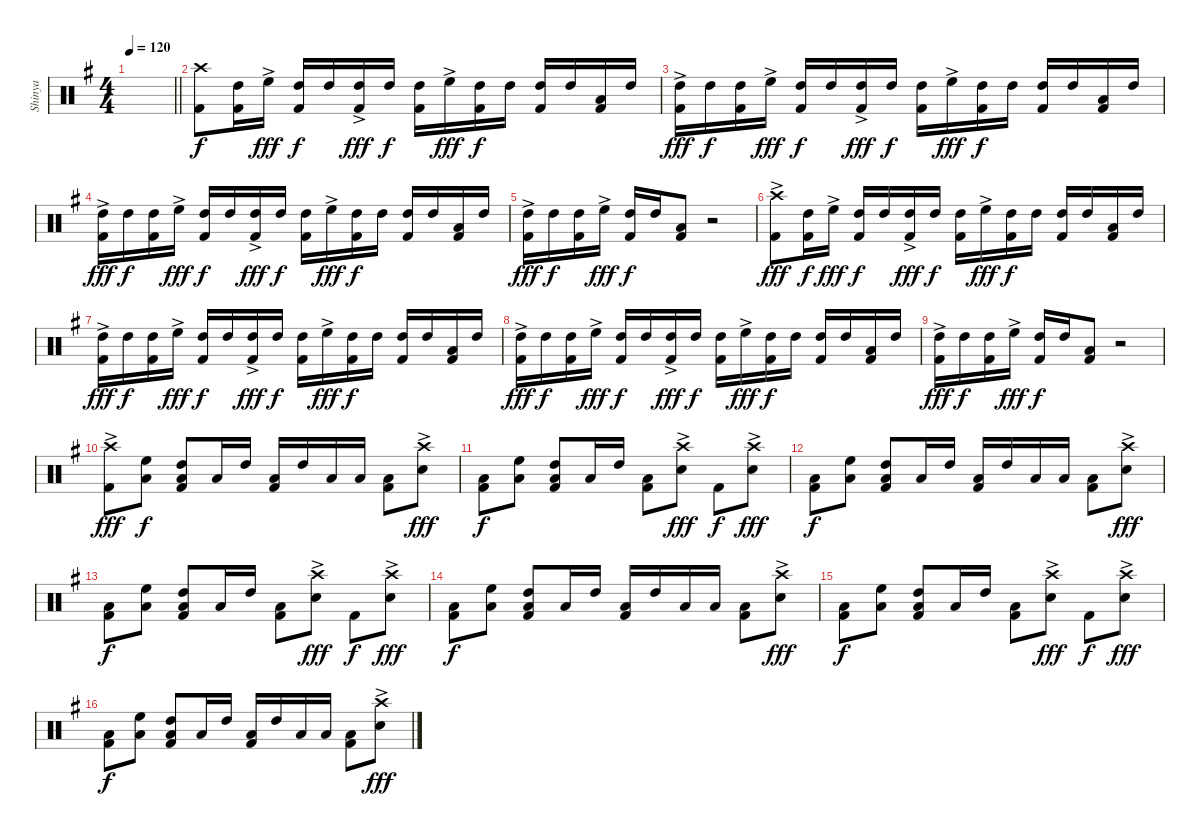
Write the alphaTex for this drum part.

\track ("Shinya" "Shinya") {instrument percussion}
\staff {score}
\articulation defaults
\ts (4 4)
\tempo 120
\clef neutral
\barLineRight lightlight
\ks g
|
("Crash high (hit)" "Kick (hit) 2").8 ("High Tom (hit)" "Kick (hit) 2").16 "High Floor Tom (hit)"{ac}.16{dy fff} ("High Tom (hit)" "Kick (hit) 2").16{dy f} "High Tom (hit)".16 ("High Tom (hit)"{ac} "Kick (hit) 2").16{dy fff} "High Tom (hit)".16{dy f} ("High Tom (hit)" "Kick (hit) 2").16 "High Floor Tom (hit)"{ac}.16{dy fff} ("High Tom (hit)" "Kick (hit) 2").16{dy f} "High Tom (hit)".16 ("High Tom (hit)" "Kick (hit) 2").16 "High Tom (hit)".16 ("Low Floor Tom (hit)" "Kick (hit) 2").16 "High Tom (hit)".16 |
("High Tom (hit)"{ac} "Kick (hit) 2").16{dy fff} "High Tom (hit)".16{dy f} ("High Tom (hit)" "Kick (hit) 2").16 "High Floor Tom (hit)"{ac}.16{dy fff} ("High Tom (hit)" "Kick (hit) 2").16{dy f} "High Tom (hit)".16 ("High Tom (hit)"{ac} "Kick (hit) 2").16{dy fff} "High Tom (hit)".16{dy f} ("High Tom (hit)" "Kick (hit) 2").16 "High Floor Tom (hit)"{ac}.16{dy fff} ("High Tom (hit)" "Kick (hit) 2").16{dy f} "High Tom (hit)".16 ("High Tom (hit)" "Kick (hit) 2").16 "High Tom (hit)".16 ("Low Floor Tom (hit)" "Kick (hit) 2").16 "High Tom (hit)".16 |
("High Tom (hit)"{ac} "Kick (hit) 2").16{dy fff} "High Tom (hit)".16{dy f} ("High Tom (hit)" "Kick (hit) 2").16 "High Floor Tom (hit)"{ac}.16{dy fff} ("High Tom (hit)" "Kick (hit) 2").16{dy f} "High Tom (hit)".16 ("High Tom (hit)"{ac} "Kick (hit) 2").16{dy fff} "High Tom (hit)".16{dy f} ("High Tom (hit)" "Kick (hit) 2").16 "High Floor Tom (hit)"{ac}.16{dy fff} ("High Tom (hit)" "Kick (hit) 2").16{dy f} "High Tom (hit)".16 ("High Tom (hit)" "Kick (hit) 2").16 "High Tom (hit)".16 ("Low Floor Tom (hit)" "Kick (hit) 2").16 "High Tom (hit)".16 |
("High Tom (hit)"{ac} "Kick (hit) 2").16{dy fff} "High Tom (hit)".16{dy f} ("High Tom (hit)" "Kick (hit) 2").16 "High Floor Tom (hit)"{ac}.16{dy fff} ("High Tom (hit)" "Kick (hit) 2").16{dy f} "High Tom (hit)".16 ("Low Floor Tom (hit)" "Kick (hit) 2").8 r.2 |
("Crash high (hit)"{ac} "Kick (hit) 2").8{dy fff} ("High Tom (hit)" "Kick (hit) 2").16{dy f} "High Floor Tom (hit)"{ac}.16{dy fff} ("High Tom (hit)" "Kick (hit) 2").16{dy f} "High Tom (hit)".16 ("High Tom (hit)"{ac} "Kick (hit) 2").16{dy fff} "High Tom (hit)".16{dy f} ("High Tom (hit)" "Kick (hit) 2").16 "High Floor Tom (hit)"{ac}.16{dy fff} ("High Tom (hit)" "Kick (hit) 2").16{dy f} "High Tom (hit)".16 ("High Tom (hit)" "Kick (hit) 2").16 "High Tom (hit)".16 ("Low Floor Tom (hit)" "Kick (hit) 2").16 "High Tom (hit)".16 |
("High Tom (hit)"{ac} "Kick (hit) 2").16{dy fff} "High Tom (hit)".16{dy f} ("High Tom (hit)" "Kick (hit) 2").16 "High Floor Tom (hit)"{ac}.16{dy fff} ("High Tom (hit)" "Kick (hit) 2").16{dy f} "High Tom (hit)".16 ("High Tom (hit)"{ac} "Kick (hit) 2").16{dy fff} "High Tom (hit)".16{dy f} ("High Tom (hit)" "Kick (hit) 2").16 "High Floor Tom (hit)"{ac}.16{dy fff} ("High Tom (hit)" "Kick (hit) 2").16{dy f} "High Tom (hit)".16 ("High Tom (hit)" "Kick (hit) 2").16 "High Tom (hit)".16 ("Low Floor Tom (hit)" "Kick (hit) 2").16 "High Tom (hit)".16 |
("High Tom (hit)"{ac} "Kick (hit) 2").16{dy fff} "High Tom (hit)".16{dy f} ("High Tom (hit)" "Kick (hit) 2").16 "High Floor Tom (hit)"{ac}.16{dy fff} ("High Tom (hit)" "Kick (hit) 2").16{dy f} "High Tom (hit)".16 ("High Tom (hit)"{ac} "Kick (hit) 2").16{dy fff} "High Tom (hit)".16{dy f} ("High Tom (hit)" "Kick (hit) 2").16 "High Floor Tom (hit)"{ac}.16{dy fff} ("High Tom (hit)" "Kick (hit) 2").16{dy f} "High Tom (hit)".16 ("High Tom (hit)" "Kick (hit) 2").16 "High Tom (hit)".16 ("Low Floor Tom (hit)" "Kick (hit) 2").16 "High Tom (hit)".16 |
("High Tom (hit)"{ac} "Kick (hit) 2").16{dy fff} "High Tom (hit)".16{dy f} ("High Tom (hit)" "Kick (hit) 2").16 "High Floor Tom (hit)"{ac}.16{dy fff} ("High Tom (hit)" "Kick (hit) 2").16{dy f} "High Tom (hit)".16 ("Low Floor Tom (hit)" "Kick (hit) 2").8 r.2 |
("Crash high (hit)"{ac} "Kick (hit) 2").8{dy fff} ("High Floor Tom (hit)" "Low Floor Tom (hit)").8{dy f} ("High Tom (hit)" "Low Floor Tom (hit)" "Kick (hit) 2").8 "Low Floor Tom (hit)".16 "High Tom (hit)".16 ("Low Floor Tom (hit)" "Kick (hit) 2").16 "High Tom (hit)".16 "Low Floor Tom (hit)".16 "Low Floor Tom (hit)".16 ("Low Floor Tom (hit)" "Kick (hit) 2").8 ("Crash high (hit)"{ac} "Snare (hit) 2").8{dy fff} |
("Low Floor Tom (hit)" "Kick (hit) 2").8{dy f} ("High Floor Tom (hit)" "Low Floor Tom (hit)").8 ("High Tom (hit)" "Low Floor Tom (hit)" "Kick (hit) 2").8 "Low Floor Tom (hit)".16 "High Tom (hit)".16 ("Low Floor Tom (hit)" "Kick (hit) 2").8 ("Crash high (hit)"{ac} "Snare (hit) 2").8{dy fff} "Kick (hit) 2".8{dy f} ("Crash high (hit)"{ac} "Snare (hit) 2").8{dy fff} |
("Low Floor Tom (hit)" "Kick (hit) 2").8{dy f} ("High Floor Tom (hit)" "Low Floor Tom (hit)").8 ("High Tom (hit)" "Low Floor Tom (hit)" "Kick (hit) 2").8 "Low Floor Tom (hit)".16 "High Tom (hit)".16 ("Low Floor Tom (hit)" "Kick (hit) 2").16 "High Tom (hit)".16 "Low Floor Tom (hit)".16 "Low Floor Tom (hit)".16 ("Low Floor Tom (hit)" "Kick (hit) 2").8 ("Crash high (hit)"{ac} "Snare (hit) 2").8{dy fff} |
("Low Floor Tom (hit)" "Kick (hit) 2").8{dy f} ("High Floor Tom (hit)" "Low Floor Tom (hit)").8 ("High Tom (hit)" "Low Floor Tom (hit)" "Kick (hit) 2").8 "Low Floor Tom (hit)".16 "High Tom (hit)".16 ("Low Floor Tom (hit)" "Kick (hit) 2").8 ("Crash high (hit)"{ac} "Snare (hit) 2").8{dy fff} "Kick (hit) 2".8{dy f} ("Crash high (hit)"{ac} "Snare (hit) 2").8{dy fff} |
("Low Floor Tom (hit)" "Kick (hit) 2").8{dy f} ("High Floor Tom (hit)" "Low Floor Tom (hit)").8 ("High Tom (hit)" "Low Floor Tom (hit)" "Kick (hit) 2").8 "Low Floor Tom (hit)".16 "High Tom (hit)".16 ("Low Floor Tom (hit)" "Kick (hit) 2").16 "High Tom (hit)".16 "Low Floor Tom (hit)".16 "Low Floor Tom (hit)".16 ("Low Floor Tom (hit)" "Kick (hit) 2").8 ("Crash high (hit)"{ac} "Snare (hit) 2").8{dy fff} |
("Low Floor Tom (hit)" "Kick (hit) 2").8{dy f} ("High Floor Tom (hit)" "Low Floor Tom (hit)").8 ("High Tom (hit)" "Low Floor Tom (hit)" "Kick (hit) 2").8 "Low Floor Tom (hit)".16 "High Tom (hit)".16 ("Low Floor Tom (hit)" "Kick (hit) 2").8 ("Crash high (hit)"{ac} "Snare (hit) 2").8{dy fff} "Kick (hit) 2".8{dy f} ("Crash high (hit)"{ac} "Snare (hit) 2").8{dy fff} |
("Low Floor Tom (hit)" "Kick (hit) 2").8{dy f} ("High Floor Tom (hit)" "Low Floor Tom (hit)").8 ("High Tom (hit)" "Low Floor Tom (hit)" "Kick (hit) 2").8 "Low Floor Tom (hit)".16 "High Tom (hit)".16 ("Low Floor Tom (hit)" "Kick (hit) 2").16 "High Tom (hit)".16 "Low Floor Tom (hit)".16 "Low Floor Tom (hit)".16 ("Low Floor Tom (hit)" "Kick (hit) 2").8 ("Crash high (hit)"{ac} "Snare (hit) 2").8{dy fff}
